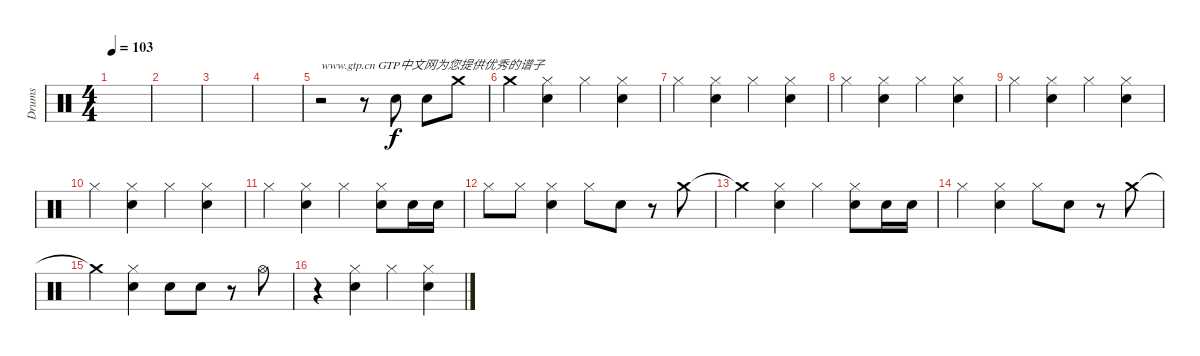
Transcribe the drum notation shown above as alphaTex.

\track ("Drums" "Drums") {instrument percussion}
\staff {score}
\articulation defaults
\ts (4 4)
\tempo 103
\clef neutral
\ks c
|
|
|
|
r.2{txt "www.gtp.cn GTP中文网为您提供优秀的谱子"} r.8 "Electric Snare (hit)".8 "Electric Snare (hit)".8 "Crash medium (hit)".8 |
"Crash medium (hit)".4 ("Hi-Hat (closed)" "Electric Snare (hit)").4 "Hi-Hat (closed)".4 ("Hi-Hat (closed)" "Electric Snare (hit)").4 |
"Hi-Hat (closed)".4 ("Hi-Hat (closed)" "Electric Snare (hit)").4 "Hi-Hat (closed)".4 ("Hi-Hat (closed)" "Electric Snare (hit)").4 |
"Hi-Hat (closed)".4 ("Hi-Hat (closed)" "Electric Snare (hit)").4 "Hi-Hat (closed)".4 ("Hi-Hat (closed)" "Electric Snare (hit)").4 |
"Hi-Hat (closed)".4 ("Hi-Hat (closed)" "Electric Snare (hit)").4 "Hi-Hat (closed)".4 ("Hi-Hat (closed)" "Electric Snare (hit)").4 |
"Hi-Hat (closed)".4 ("Hi-Hat (closed)" "Electric Snare (hit)").4 "Hi-Hat (closed)".4 ("Hi-Hat (closed)" "Electric Snare (hit)").4 |
"Hi-Hat (closed)".4 ("Hi-Hat (closed)" "Electric Snare (hit)").4 "Hi-Hat (closed)".4 ("Hi-Hat (closed)" "Electric Snare (hit)").8 "Electric Snare (hit)".16 "Electric Snare (hit)".16 |
"Hi-Hat (closed)".8 "Hi-Hat (closed)".8 ("Hi-Hat (closed)" "Electric Snare (hit)").4 "Hi-Hat (closed)".8 "Electric Snare (hit)".8 r.8 "Crash medium (hit)".8 |
"Crash medium (hit)"{t}.4 ("Hi-Hat (closed)" "Electric Snare (hit)").4 "Hi-Hat (closed)".4 ("Hi-Hat (closed)" "Electric Snare (hit)").8 "Electric Snare (hit)".16 "Electric Snare (hit)".16 |
"Hi-Hat (closed)".4 ("Hi-Hat (closed)" "Electric Snare (hit)").4 "Hi-Hat (closed)".8 "Electric Snare (hit)".8 r.8 "Crash medium (hit)".8 |
"Crash medium (hit)"{t}.4 ("Hi-Hat (closed)" "Electric Snare (hit)").4 "Electric Snare (hit)".8 "Electric Snare (hit)".8 r.8 "Hi-Hat (open)".8 |
r.4 ("Hi-Hat (closed)" "Electric Snare (hit)").4 "Hi-Hat (closed)".4 ("Hi-Hat (closed)" "Electric Snare (hit)").4
